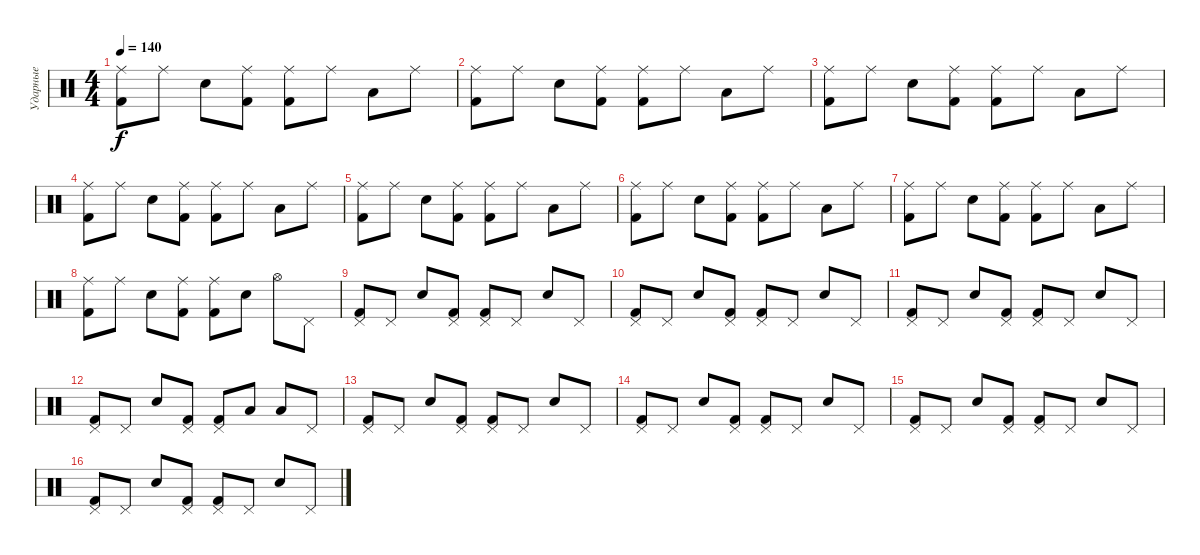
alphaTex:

\track ("Ударные" "Ударные") {instrument percussion}
\staff {score}
\articulation defaults
\ts (4 4)
\tempo 140
\clef neutral
\ks c
("Kick (hit) 2" "Ride (middle)").8{dy f} "Ride (middle)".8 "Electric Snare (hit)".8 ("Kick (hit) 2" "Ride (middle)").8 ("Kick (hit) 2" "Ride (middle)").8 "Ride (middle)".8 "Low Tom (hit)".8 "Ride (middle)".8 |
("Kick (hit) 2" "Ride (middle)").8 "Ride (middle)".8 "Electric Snare (hit)".8 ("Kick (hit) 2" "Ride (middle)").8 ("Kick (hit) 2" "Ride (middle)").8 "Ride (middle)".8 "Low Tom (hit)".8 "Ride (middle)".8 |
("Kick (hit) 2" "Ride (middle)").8 "Ride (middle)".8 "Electric Snare (hit)".8 ("Kick (hit) 2" "Ride (middle)").8 ("Kick (hit) 2" "Ride (middle)").8 "Ride (middle)".8 "Low Tom (hit)".8 "Ride (middle)".8 |
("Kick (hit) 2" "Ride (middle)").8 "Ride (middle)".8 "Electric Snare (hit)".8 ("Kick (hit) 2" "Ride (middle)").8 ("Kick (hit) 2" "Ride (middle)").8 "Ride (middle)".8 "Low Tom (hit)".8 "Ride (middle)".8 |
("Kick (hit) 2" "Ride (middle)").8 "Ride (middle)".8 "Electric Snare (hit)".8 ("Kick (hit) 2" "Ride (middle)").8 ("Kick (hit) 2" "Ride (middle)").8 "Ride (middle)".8 "Low Tom (hit)".8 "Ride (middle)".8 |
("Kick (hit) 2" "Ride (middle)").8 "Ride (middle)".8 "Electric Snare (hit)".8 ("Kick (hit) 2" "Ride (middle)").8 ("Kick (hit) 2" "Ride (middle)").8 "Ride (middle)".8 "Low Tom (hit)".8 "Ride (middle)".8 |
("Kick (hit) 2" "Ride (middle)").8 "Ride (middle)".8 "Electric Snare (hit)".8 ("Kick (hit) 2" "Ride (middle)").8 ("Kick (hit) 2" "Ride (middle)").8 "Ride (middle)".8 "Low Tom (hit)".8 "Ride (middle)".8 |
("Kick (hit) 2" "Ride (middle)").8 "Ride (middle)".8 "Electric Snare (hit)".8 ("Kick (hit) 2" "Ride (middle)").8 ("Kick (hit) 2" "Ride (middle)").8 "Electric Snare (hit)".8 "Hi-Hat (open)".8 "Pedal Hi-Hat (hit)".8 |
("Kick (hit) 2" "Pedal Hi-Hat (hit)").8 "Pedal Hi-Hat (hit)".8 "Electric Snare (hit)".8 ("Kick (hit) 2" "Pedal Hi-Hat (hit)").8 ("Kick (hit) 2" "Pedal Hi-Hat (hit)").8 "Pedal Hi-Hat (hit)".8 "Electric Snare (hit)".8 "Pedal Hi-Hat (hit)".8 |
("Kick (hit) 2" "Pedal Hi-Hat (hit)").8 "Pedal Hi-Hat (hit)".8 "Electric Snare (hit)".8 ("Kick (hit) 2" "Pedal Hi-Hat (hit)").8 ("Kick (hit) 2" "Pedal Hi-Hat (hit)").8 "Pedal Hi-Hat (hit)".8 "Electric Snare (hit)".8 "Pedal Hi-Hat (hit)".8 |
("Kick (hit) 2" "Pedal Hi-Hat (hit)").8 "Pedal Hi-Hat (hit)".8 "Electric Snare (hit)".8 ("Kick (hit) 2" "Pedal Hi-Hat (hit)").8 ("Kick (hit) 2" "Pedal Hi-Hat (hit)").8 "Pedal Hi-Hat (hit)".8 "Electric Snare (hit)".8 "Pedal Hi-Hat (hit)".8 |
("Kick (hit) 2" "Pedal Hi-Hat (hit)").8 "Pedal Hi-Hat (hit)".8 "Electric Snare (hit)".8 ("Kick (hit) 2" "Pedal Hi-Hat (hit)").8 ("Kick (hit) 2" "Pedal Hi-Hat (hit)").8 "Low Tom (hit)".8 "Low Tom (hit)".8 "Pedal Hi-Hat (hit)".8 |
("Kick (hit) 2" "Pedal Hi-Hat (hit)").8 "Pedal Hi-Hat (hit)".8 "Electric Snare (hit)".8 ("Kick (hit) 2" "Pedal Hi-Hat (hit)").8 ("Kick (hit) 2" "Pedal Hi-Hat (hit)").8 "Pedal Hi-Hat (hit)".8 "Electric Snare (hit)".8 "Pedal Hi-Hat (hit)".8 |
("Kick (hit) 2" "Pedal Hi-Hat (hit)").8 "Pedal Hi-Hat (hit)".8 "Electric Snare (hit)".8 ("Kick (hit) 2" "Pedal Hi-Hat (hit)").8 ("Kick (hit) 2" "Pedal Hi-Hat (hit)").8 "Pedal Hi-Hat (hit)".8 "Electric Snare (hit)".8 "Pedal Hi-Hat (hit)".8 |
("Kick (hit) 2" "Pedal Hi-Hat (hit)").8 "Pedal Hi-Hat (hit)".8 "Electric Snare (hit)".8 ("Kick (hit) 2" "Pedal Hi-Hat (hit)").8 ("Kick (hit) 2" "Pedal Hi-Hat (hit)").8 "Pedal Hi-Hat (hit)".8 "Electric Snare (hit)".8 "Pedal Hi-Hat (hit)".8 |
("Kick (hit) 2" "Pedal Hi-Hat (hit)").8 "Pedal Hi-Hat (hit)".8 "Electric Snare (hit)".8 ("Kick (hit) 2" "Pedal Hi-Hat (hit)").8 ("Kick (hit) 2" "Pedal Hi-Hat (hit)").8 "Pedal Hi-Hat (hit)".8 "Electric Snare (hit)".8 "Pedal Hi-Hat (hit)".8
